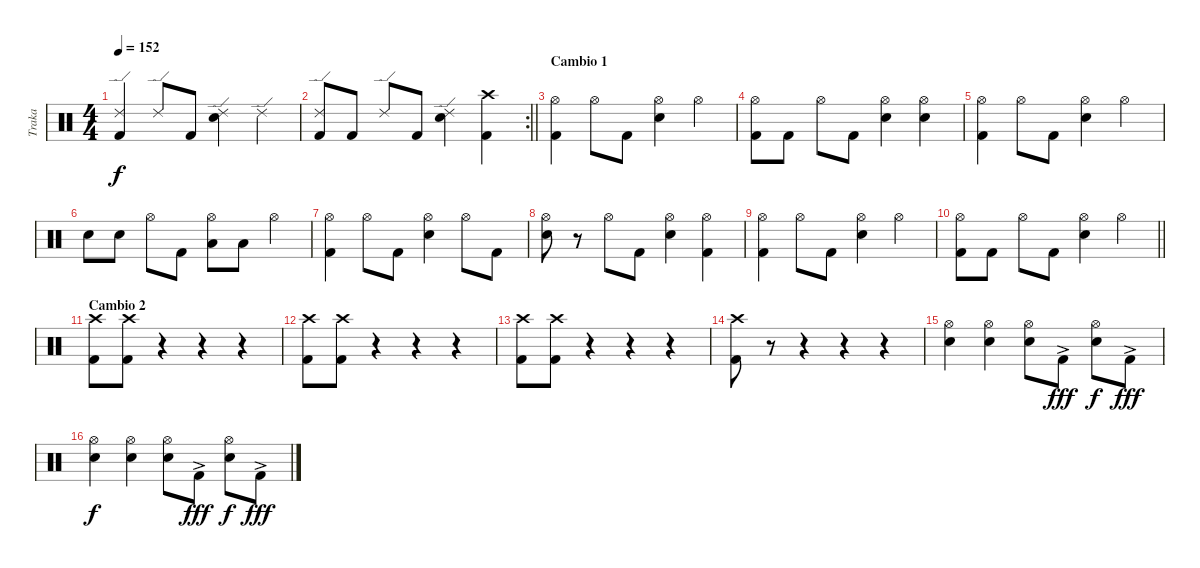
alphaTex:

\track ("Traka" "Traka") {instrument percussion}
\staff {score}
\articulation defaults
\ts (4 4)
\tempo 152
\clef neutral
\ks c
("Ride (edge) 2" "Kick (hit) 2").4{dy f} "Ride (edge) 2".8 "Kick (hit) 2".8 ("Ride (edge) 2" "Electric Snare (hit)").4 "Ride (edge) 2".4 |
\rc 2
\barLineRight lightlight
("Ride (edge) 2" "Kick (hit) 2").8 "Kick (hit) 2".8 "Ride (edge) 2".8 "Kick (hit) 2".8 ("Ride (edge) 2" "Electric Snare (hit)").4 ("Crash high (hit)" "Kick (hit) 2").4 |
\section ("" "Cambio 1")
("Hi-Hat (open)" "Kick (hit) 2").4 "Hi-Hat (open)".8 "Kick (hit) 2".8 ("Hi-Hat (open)" "Electric Snare (hit)").4 "Hi-Hat (open)".4 |
("Hi-Hat (open)" "Kick (hit) 2").8 "Kick (hit) 2".8 "Hi-Hat (open)".8 "Kick (hit) 2".8 ("Hi-Hat (open)" "Electric Snare (hit)").4 ("Hi-Hat (open)" "Electric Snare (hit)").4 |
("Hi-Hat (open)" "Kick (hit) 2").4 "Hi-Hat (open)".8 "Kick (hit) 2".8 ("Hi-Hat (open)" "Electric Snare (hit)").4 "Hi-Hat (open)".4 |
"Electric Snare (hit)".8 "Electric Snare (hit)".8 "Hi-Hat (open)".8 "Kick (hit) 2".8 ("Hi-Hat (open)" "Low Tom (hit)").8 "Low Tom (hit)".8 "Hi-Hat (open)".4 |
("Hi-Hat (open)" "Kick (hit) 2").4 "Hi-Hat (open)".8 "Kick (hit) 2".8 ("Hi-Hat (open)" "Electric Snare (hit)").4 "Hi-Hat (open)".8 "Kick (hit) 2".8 |
("Hi-Hat (open)" "Electric Snare (hit)").8 r.8 "Hi-Hat (open)".8 "Kick (hit) 2".8 ("Hi-Hat (open)" "Electric Snare (hit)").4 ("Hi-Hat (open)" "Kick (hit) 2").4 |
("Hi-Hat (open)" "Kick (hit) 2").4 "Hi-Hat (open)".8 "Kick (hit) 2".8 ("Hi-Hat (open)" "Electric Snare (hit)").4 "Hi-Hat (open)".4 |
\barLineRight lightlight
("Hi-Hat (open)" "Kick (hit) 2").8 "Kick (hit) 2".8 "Hi-Hat (open)".8 "Kick (hit) 2".8 ("Hi-Hat (open)" "Electric Snare (hit)").4 "Hi-Hat (open)".4 |
\section ("" "Cambio 2")
("Crash high (hit)" "Kick (hit) 2").8 ("Crash high (hit)" "Kick (hit) 2").8 r.4 r.4 r.4 |
("Crash high (hit)" "Kick (hit) 2").8 ("Crash high (hit)" "Kick (hit) 2").8 r.4 r.4 r.4 |
("Crash high (hit)" "Kick (hit) 2").8 ("Crash high (hit)" "Kick (hit) 2").8 r.4 r.4 r.4 |
("Crash high (hit)" "Kick (hit) 2").8 r.8 r.4 r.4 r.4 |
("Hi-Hat (open)" "Electric Snare (hit)").4 ("Hi-Hat (open)" "Electric Snare (hit)").4 ("Hi-Hat (open)" "Electric Snare (hit)").8 "Kick (hit) 2"{ac}.8{dy fff} ("Hi-Hat (open)" "Electric Snare (hit)").8{dy f} "Kick (hit) 2"{ac}.8{dy fff} |
("Hi-Hat (open)" "Electric Snare (hit)").4{dy f} ("Hi-Hat (open)" "Electric Snare (hit)").4 ("Hi-Hat (open)" "Electric Snare (hit)").8 "Kick (hit) 2"{ac}.8{dy fff} ("Hi-Hat (open)" "Electric Snare (hit)").8{dy f} "Kick (hit) 2"{ac}.8{dy fff}
